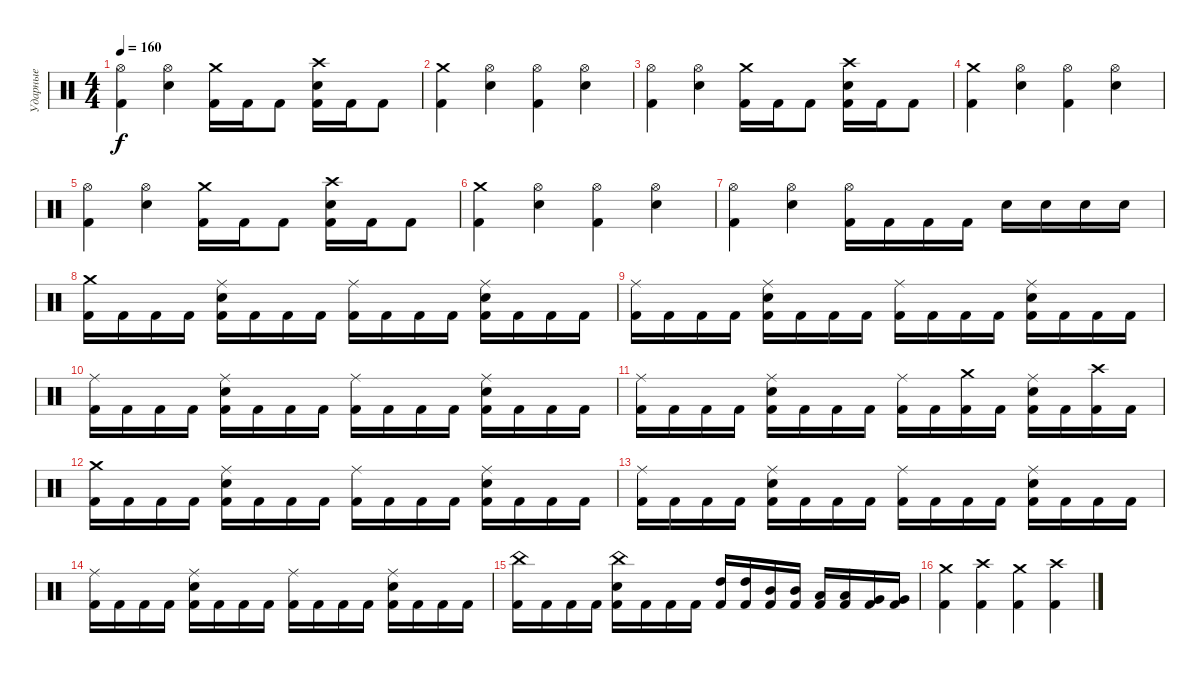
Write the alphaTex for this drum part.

\track ("Ударные" "Ударные") {instrument percussion}
\staff {score}
\articulation defaults
\ts (4 4)
\tempo 160
\clef neutral
\ks c
("Hi-Hat (open)" "Kick (hit) 2").4{dy f} ("Hi-Hat (open)" "Electric Snare (hit)").4 ("Crash medium (hit)" "Kick (hit) 2").16 "Kick (hit) 2".16 "Kick (hit) 2".8 ("Crash high (hit)" "Electric Snare (hit)" "Kick (hit) 2").16 "Kick (hit) 2".16 "Kick (hit) 2".8 |
("Crash medium (hit)" "Kick (hit) 2").4 ("Hi-Hat (open)" "Electric Snare (hit)").4 ("Hi-Hat (open)" "Kick (hit) 2").4 ("Hi-Hat (open)" "Electric Snare (hit)").4 |
("Hi-Hat (open)" "Kick (hit) 2").4 ("Hi-Hat (open)" "Electric Snare (hit)").4 ("Crash medium (hit)" "Kick (hit) 2").16 "Kick (hit) 2".16 "Kick (hit) 2".8 ("Crash high (hit)" "Electric Snare (hit)" "Kick (hit) 2").16 "Kick (hit) 2".16 "Kick (hit) 2".8 |
("Crash medium (hit)" "Kick (hit) 2").4 ("Hi-Hat (open)" "Electric Snare (hit)").4 ("Hi-Hat (open)" "Kick (hit) 2").4 ("Hi-Hat (open)" "Electric Snare (hit)").4 |
("Hi-Hat (open)" "Kick (hit) 2").4 ("Hi-Hat (open)" "Electric Snare (hit)").4 ("Crash medium (hit)" "Kick (hit) 2").16 "Kick (hit) 2".16 "Kick (hit) 2".8 ("Crash high (hit)" "Electric Snare (hit)" "Kick (hit) 2").16 "Kick (hit) 2".16 "Kick (hit) 2".8 |
("Crash medium (hit)" "Kick (hit) 2").4 ("Hi-Hat (open)" "Electric Snare (hit)").4 ("Hi-Hat (open)" "Kick (hit) 2").4 ("Hi-Hat (open)" "Electric Snare (hit)").4 |
("Hi-Hat (open)" "Kick (hit) 2").4 ("Hi-Hat (open)" "Electric Snare (hit)").4 ("Hi-Hat (open)" "Kick (hit) 2").16 "Kick (hit) 2".16 "Kick (hit) 2".16 "Kick (hit) 2".16 "Electric Snare (hit)".16 "Electric Snare (hit)".16 "Electric Snare (hit)".16 "Electric Snare (hit)".16 |
("Crash medium (hit)" "Kick (hit) 2").16 "Kick (hit) 2".16 "Kick (hit) 2".16 "Kick (hit) 2".16 ("Ride (middle)" "Electric Snare (hit)" "Kick (hit) 2").16 "Kick (hit) 2".16 "Kick (hit) 2".16 "Kick (hit) 2".16 ("Ride (middle)" "Kick (hit) 2").16 "Kick (hit) 2".16 "Kick (hit) 2".16 "Kick (hit) 2".16 ("Ride (middle)" "Electric Snare (hit)" "Kick (hit) 2").16 "Kick (hit) 2".16 "Kick (hit) 2".16 "Kick (hit) 2".16 |
("Ride (middle)" "Kick (hit) 2").16 "Kick (hit) 2".16 "Kick (hit) 2".16 "Kick (hit) 2".16 ("Ride (middle)" "Electric Snare (hit)" "Kick (hit) 2").16 "Kick (hit) 2".16 "Kick (hit) 2".16 "Kick (hit) 2".16 ("Ride (middle)" "Kick (hit) 2").16 "Kick (hit) 2".16 "Kick (hit) 2".16 "Kick (hit) 2".16 ("Ride (middle)" "Electric Snare (hit)" "Kick (hit) 2").16 "Kick (hit) 2".16 "Kick (hit) 2".16 "Kick (hit) 2".16 |
("Ride (middle)" "Kick (hit) 2").16 "Kick (hit) 2".16 "Kick (hit) 2".16 "Kick (hit) 2".16 ("Ride (middle)" "Electric Snare (hit)" "Kick (hit) 2").16 "Kick (hit) 2".16 "Kick (hit) 2".16 "Kick (hit) 2".16 ("Ride (middle)" "Kick (hit) 2").16 "Kick (hit) 2".16 "Kick (hit) 2".16 "Kick (hit) 2".16 ("Ride (middle)" "Electric Snare (hit)" "Kick (hit) 2").16 "Kick (hit) 2".16 "Kick (hit) 2".16 "Kick (hit) 2".16 |
("Ride (middle)" "Kick (hit) 2").16 "Kick (hit) 2".16 "Kick (hit) 2".16 "Kick (hit) 2".16 ("Ride (middle)" "Electric Snare (hit)" "Kick (hit) 2").16 "Kick (hit) 2".16 "Kick (hit) 2".16 "Kick (hit) 2".16 ("Ride (middle)" "Kick (hit) 2").16 "Kick (hit) 2".16 ("Crash medium (hit)" "Kick (hit) 2").16 "Kick (hit) 2".16 ("Ride (middle)" "Electric Snare (hit)" "Kick (hit) 2").16 "Kick (hit) 2".16 ("Crash high (hit)" "Kick (hit) 2").16 "Kick (hit) 2".16 |
("Crash medium (hit)" "Kick (hit) 2").16 "Kick (hit) 2".16 "Kick (hit) 2".16 "Kick (hit) 2".16 ("Ride (middle)" "Electric Snare (hit)" "Kick (hit) 2").16 "Kick (hit) 2".16 "Kick (hit) 2".16 "Kick (hit) 2".16 ("Ride (middle)" "Kick (hit) 2").16 "Kick (hit) 2".16 "Kick (hit) 2".16 "Kick (hit) 2".16 ("Ride (middle)" "Electric Snare (hit)" "Kick (hit) 2").16 "Kick (hit) 2".16 "Kick (hit) 2".16 "Kick (hit) 2".16 |
("Ride (middle)" "Kick (hit) 2").16 "Kick (hit) 2".16 "Kick (hit) 2".16 "Kick (hit) 2".16 ("Ride (middle)" "Electric Snare (hit)" "Kick (hit) 2").16 "Kick (hit) 2".16 "Kick (hit) 2".16 "Kick (hit) 2".16 ("Ride (middle)" "Kick (hit) 2").16 "Kick (hit) 2".16 "Kick (hit) 2".16 "Kick (hit) 2".16 ("Ride (middle)" "Electric Snare (hit)" "Kick (hit) 2").16 "Kick (hit) 2".16 "Kick (hit) 2".16 "Kick (hit) 2".16 |
("Ride (middle)" "Kick (hit) 2").16 "Kick (hit) 2".16 "Kick (hit) 2".16 "Kick (hit) 2".16 ("Ride (middle)" "Electric Snare (hit)" "Kick (hit) 2").16 "Kick (hit) 2".16 "Kick (hit) 2".16 "Kick (hit) 2".16 ("Ride (middle)" "Kick (hit) 2").16 "Kick (hit) 2".16 "Kick (hit) 2".16 "Kick (hit) 2".16 ("Ride (middle)" "Electric Snare (hit)" "Kick (hit) 2").16 "Kick (hit) 2".16 "Kick (hit) 2".16 "Kick (hit) 2".16 |
("China (hit)" "Kick (hit) 2").16 "Kick (hit) 2".16 "Kick (hit) 2".16 "Kick (hit) 2".16 ("China (hit)" "Electric Snare (hit)" "Kick (hit) 2").16 "Kick (hit) 2".16 "Kick (hit) 2".16 "Kick (hit) 2".16 ("High Tom (hit)" "Kick (hit) 2").16 ("High Tom (hit)" "Kick (hit) 2").16 ("Mid Tom (hit)" "Kick (hit) 2").16 ("Mid Tom (hit)" "Kick (hit) 2").16 ("Low Tom (hit)" "Kick (hit) 2").16 ("Low Tom (hit)" "Kick (hit) 2").16 ("Very Low Tom (hit)" "Kick (hit) 2").16 ("Very Low Tom (hit)" "Kick (hit) 2").16 |
("Crash medium (hit)" "Kick (hit) 2").4 ("Crash high (hit)" "Kick (hit) 2").4 ("Crash medium (hit)" "Kick (hit) 2").4 ("Crash high (hit)" "Kick (hit) 2").4
